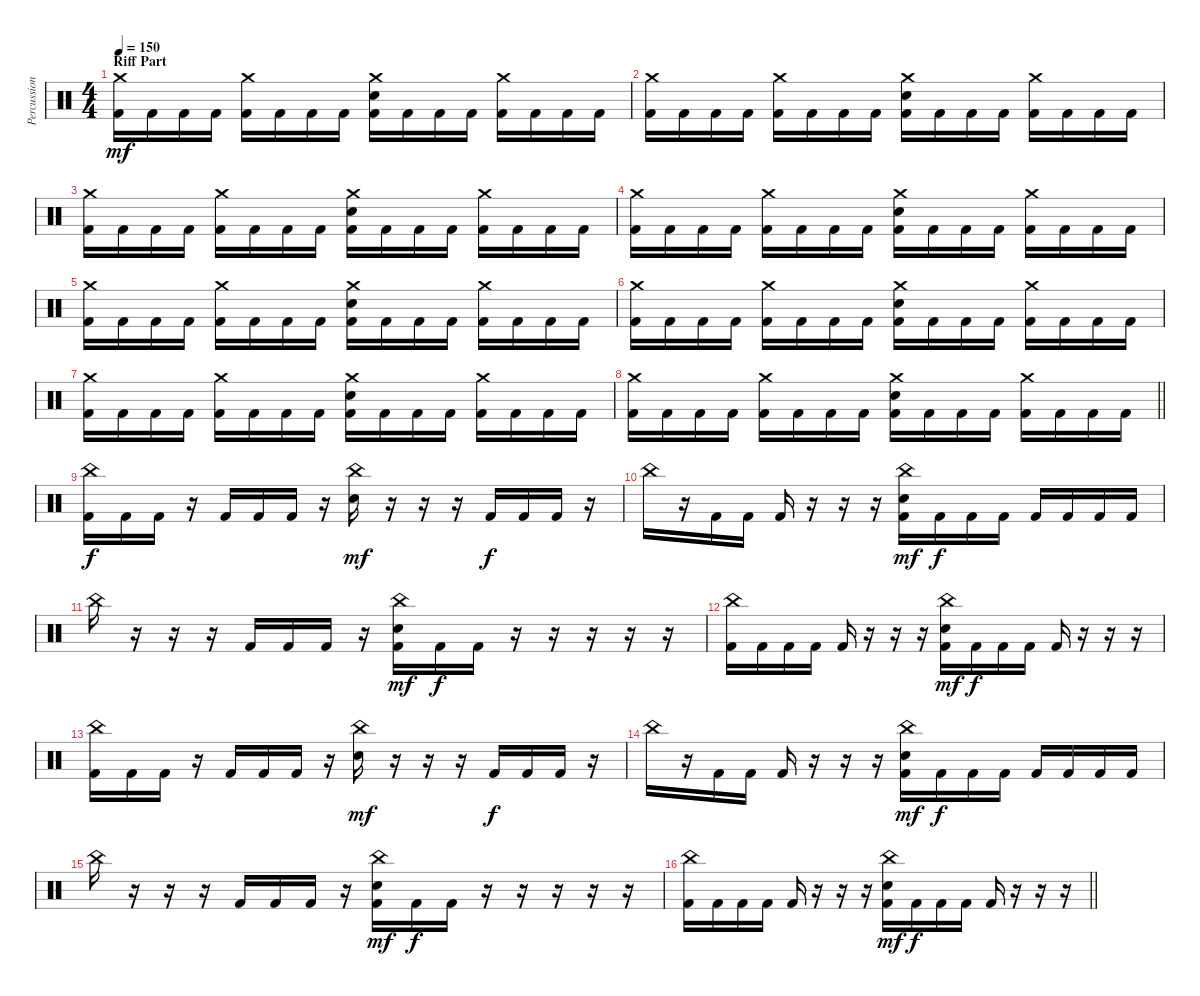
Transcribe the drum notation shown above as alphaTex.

\track ("Percussion" "Percussion") {instrument percussion}
\staff {score}
\articulation defaults
\ts (4 4)
\section ("" "Riff Part")
\tempo 150
\clef neutral
\ks c
("Crash medium (hit)" "Kick (hit) 2").16{dy mf} "Kick (hit) 2".16 "Kick (hit) 2".16 "Kick (hit) 2".16 ("Crash medium (hit)" "Kick (hit) 2").16 "Kick (hit) 2".16 "Kick (hit) 2".16 "Kick (hit) 2".16 ("Crash medium (hit)" "Electric Snare (hit)" "Kick (hit) 2").16 "Kick (hit) 2".16 "Kick (hit) 2".16 "Kick (hit) 2".16 ("Crash medium (hit)" "Kick (hit) 2").16 "Kick (hit) 2".16 "Kick (hit) 2".16 "Kick (hit) 2".16 |
("Crash medium (hit)" "Kick (hit) 2").16 "Kick (hit) 2".16 "Kick (hit) 2".16 "Kick (hit) 2".16 ("Crash medium (hit)" "Kick (hit) 2").16 "Kick (hit) 2".16 "Kick (hit) 2".16 "Kick (hit) 2".16 ("Crash medium (hit)" "Electric Snare (hit)" "Kick (hit) 2").16 "Kick (hit) 2".16 "Kick (hit) 2".16 "Kick (hit) 2".16 ("Crash medium (hit)" "Kick (hit) 2").16 "Kick (hit) 2".16 "Kick (hit) 2".16 "Kick (hit) 2".16 |
("Crash medium (hit)" "Kick (hit) 2").16 "Kick (hit) 2".16 "Kick (hit) 2".16 "Kick (hit) 2".16 ("Crash medium (hit)" "Kick (hit) 2").16 "Kick (hit) 2".16 "Kick (hit) 2".16 "Kick (hit) 2".16 ("Crash medium (hit)" "Electric Snare (hit)" "Kick (hit) 2").16 "Kick (hit) 2".16 "Kick (hit) 2".16 "Kick (hit) 2".16 ("Crash medium (hit)" "Kick (hit) 2").16 "Kick (hit) 2".16 "Kick (hit) 2".16 "Kick (hit) 2".16 |
("Crash medium (hit)" "Kick (hit) 2").16 "Kick (hit) 2".16 "Kick (hit) 2".16 "Kick (hit) 2".16 ("Crash medium (hit)" "Kick (hit) 2").16 "Kick (hit) 2".16 "Kick (hit) 2".16 "Kick (hit) 2".16 ("Crash medium (hit)" "Electric Snare (hit)" "Kick (hit) 2").16 "Kick (hit) 2".16 "Kick (hit) 2".16 "Kick (hit) 2".16 ("Crash medium (hit)" "Kick (hit) 2").16 "Kick (hit) 2".16 "Kick (hit) 2".16 "Kick (hit) 2".16 |
("Crash medium (hit)" "Kick (hit) 2").16 "Kick (hit) 2".16 "Kick (hit) 2".16 "Kick (hit) 2".16 ("Crash medium (hit)" "Kick (hit) 2").16 "Kick (hit) 2".16 "Kick (hit) 2".16 "Kick (hit) 2".16 ("Crash medium (hit)" "Electric Snare (hit)" "Kick (hit) 2").16 "Kick (hit) 2".16 "Kick (hit) 2".16 "Kick (hit) 2".16 ("Crash medium (hit)" "Kick (hit) 2").16 "Kick (hit) 2".16 "Kick (hit) 2".16 "Kick (hit) 2".16 |
("Crash medium (hit)" "Kick (hit) 2").16 "Kick (hit) 2".16 "Kick (hit) 2".16 "Kick (hit) 2".16 ("Crash medium (hit)" "Kick (hit) 2").16 "Kick (hit) 2".16 "Kick (hit) 2".16 "Kick (hit) 2".16 ("Crash medium (hit)" "Electric Snare (hit)" "Kick (hit) 2").16 "Kick (hit) 2".16 "Kick (hit) 2".16 "Kick (hit) 2".16 ("Crash medium (hit)" "Kick (hit) 2").16 "Kick (hit) 2".16 "Kick (hit) 2".16 "Kick (hit) 2".16 |
("Crash medium (hit)" "Kick (hit) 2").16 "Kick (hit) 2".16 "Kick (hit) 2".16 "Kick (hit) 2".16 ("Crash medium (hit)" "Kick (hit) 2").16 "Kick (hit) 2".16 "Kick (hit) 2".16 "Kick (hit) 2".16 ("Crash medium (hit)" "Electric Snare (hit)" "Kick (hit) 2").16 "Kick (hit) 2".16 "Kick (hit) 2".16 "Kick (hit) 2".16 ("Crash medium (hit)" "Kick (hit) 2").16 "Kick (hit) 2".16 "Kick (hit) 2".16 "Kick (hit) 2".16 |
\barLineRight lightlight
("Crash medium (hit)" "Kick (hit) 2").16 "Kick (hit) 2".16 "Kick (hit) 2".16 "Kick (hit) 2".16 ("Crash medium (hit)" "Kick (hit) 2").16 "Kick (hit) 2".16 "Kick (hit) 2".16 "Kick (hit) 2".16 ("Crash medium (hit)" "Electric Snare (hit)" "Kick (hit) 2").16 "Kick (hit) 2".16 "Kick (hit) 2".16 "Kick (hit) 2".16 ("Crash medium (hit)" "Kick (hit) 2").16 "Kick (hit) 2".16 "Kick (hit) 2".16 "Kick (hit) 2".16 |
("China (hit)" "Kick (hit) 2").16{dy f} "Kick (hit) 2".16 "Kick (hit) 2".16 r.16 "Kick (hit) 2".16 "Kick (hit) 2".16 "Kick (hit) 2".16 r.16 ("China (hit)" "Electric Snare (hit)").16{dy mf} r.16 r.16 r.16 "Kick (hit) 2".16{dy f} "Kick (hit) 2".16 "Kick (hit) 2".16 r.16 |
"China (hit)".16 r.16 "Kick (hit) 2".16 "Kick (hit) 2".16 "Kick (hit) 2".16 r.16 r.16 r.16 ("China (hit)" "Electric Snare (hit)" "Kick (hit) 2").16{dy mf} "Kick (hit) 2".16{dy f} "Kick (hit) 2".16 "Kick (hit) 2".16 "Kick (hit) 2".16 "Kick (hit) 2".16 "Kick (hit) 2".16 "Kick (hit) 2".16 |
"China (hit)".16 r.16 r.16 r.16 "Kick (hit) 2".16 "Kick (hit) 2".16 "Kick (hit) 2".16 r.16 ("China (hit)" "Electric Snare (hit)" "Kick (hit) 2").16{dy mf} "Kick (hit) 2".16{dy f} "Kick (hit) 2".16 r.16 r.16 r.16 r.16 r.16 |
("China (hit)" "Kick (hit) 2").16 "Kick (hit) 2".16 "Kick (hit) 2".16 "Kick (hit) 2".16 "Kick (hit) 2".16 r.16 r.16 r.16 ("China (hit)" "Electric Snare (hit)" "Kick (hit) 2").16{dy mf} "Kick (hit) 2".16{dy f} "Kick (hit) 2".16 "Kick (hit) 2".16 "Kick (hit) 2".16 r.16 r.16 r.16 |
("China (hit)" "Kick (hit) 2").16 "Kick (hit) 2".16 "Kick (hit) 2".16 r.16 "Kick (hit) 2".16 "Kick (hit) 2".16 "Kick (hit) 2".16 r.16 ("China (hit)" "Electric Snare (hit)").16{dy mf} r.16 r.16 r.16 "Kick (hit) 2".16{dy f} "Kick (hit) 2".16 "Kick (hit) 2".16 r.16 |
"China (hit)".16 r.16 "Kick (hit) 2".16 "Kick (hit) 2".16 "Kick (hit) 2".16 r.16 r.16 r.16 ("China (hit)" "Electric Snare (hit)" "Kick (hit) 2").16{dy mf} "Kick (hit) 2".16{dy f} "Kick (hit) 2".16 "Kick (hit) 2".16 "Kick (hit) 2".16 "Kick (hit) 2".16 "Kick (hit) 2".16 "Kick (hit) 2".16 |
"China (hit)".16 r.16 r.16 r.16 "Kick (hit) 2".16 "Kick (hit) 2".16 "Kick (hit) 2".16 r.16 ("China (hit)" "Electric Snare (hit)" "Kick (hit) 2").16{dy mf} "Kick (hit) 2".16{dy f} "Kick (hit) 2".16 r.16 r.16 r.16 r.16 r.16 |
\barLineRight lightlight
("China (hit)" "Kick (hit) 2").16 "Kick (hit) 2".16 "Kick (hit) 2".16 "Kick (hit) 2".16 "Kick (hit) 2".16 r.16 r.16 r.16 ("China (hit)" "Electric Snare (hit)" "Kick (hit) 2").16{dy mf} "Kick (hit) 2".16{dy f} "Kick (hit) 2".16 "Kick (hit) 2".16 "Kick (hit) 2".16 r.16 r.16 r.16
